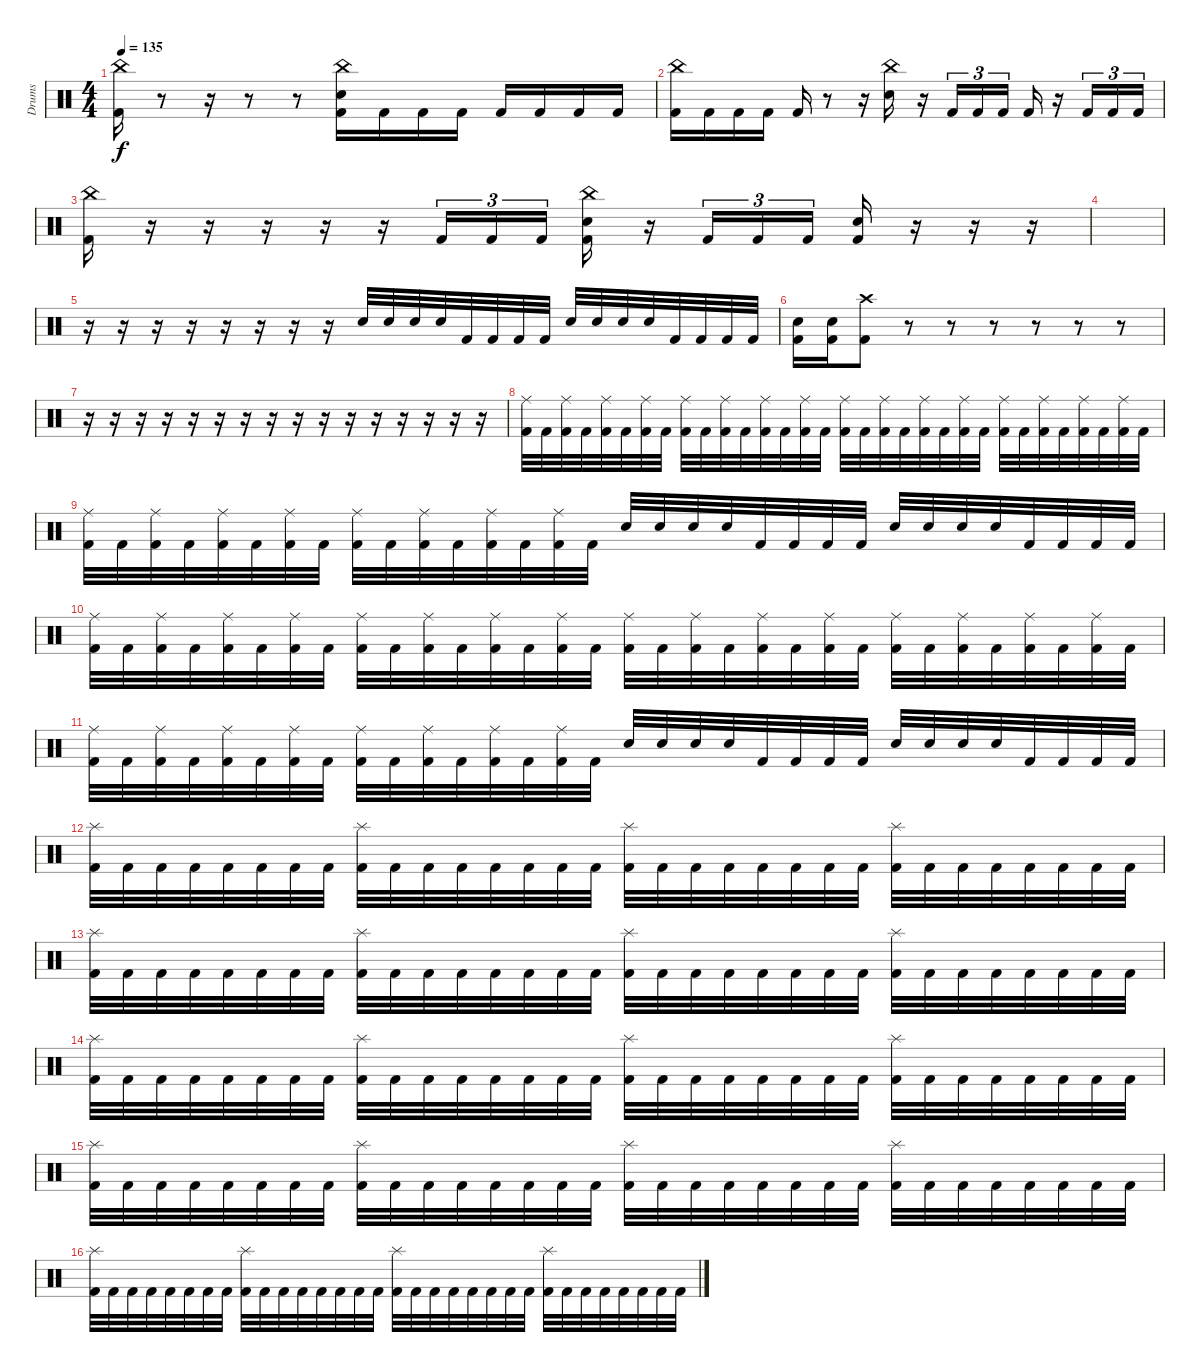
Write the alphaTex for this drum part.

\track ("Drums" "Drums") {instrument percussion}
\staff {score}
\articulation defaults
\ts (4 4)
\tempo 135
\clef neutral
\ks c
("China (hit)" "Kick (hit) 2").16{dy f} r.8 r.16 r.8 r.8 ("China (hit)" "Electric Snare (hit)" "Kick (hit) 2").16 "Kick (hit) 2".16 "Kick (hit) 2".16 "Kick (hit) 2".16 "Kick (hit) 2".16 "Kick (hit) 2".16 "Kick (hit) 2".16 "Kick (hit) 2".16 |
("China (hit)" "Kick (hit) 2").16 "Kick (hit) 2".16 "Kick (hit) 2".16 "Kick (hit) 2".16 "Kick (hit) 2".16 r.8 r.16 ("China (hit)" "Electric Snare (hit)").16 r.16 "Kick (hit) 2".16{tu (3 2)} "Kick (hit) 2".16{tu (3 2)} "Kick (hit) 2".16{tu (3 2)} "Kick (hit) 2".16 r.16 "Kick (hit) 2".16{tu (3 2)} "Kick (hit) 2".16{tu (3 2)} "Kick (hit) 2".16{tu (3 2)} |
("China (hit)" "Kick (hit) 2").16 r.16 r.16 r.16 r.16 r.16 "Kick (hit) 2".16{tu (3 2)} "Kick (hit) 2".16{tu (3 2)} "Kick (hit) 2".16{tu (3 2)} ("China (hit)" "Electric Snare (hit)" "Kick (hit) 2").16 r.16 "Kick (hit) 2".16{tu (3 2)} "Kick (hit) 2".16{tu (3 2)} "Kick (hit) 2".16{tu (3 2)} ("Electric Snare (hit)" "Kick (hit) 2").16 r.16 r.16 r.16 |
|
r.16 r.16 r.16 r.16 r.16 r.16 r.16 r.16 "Electric Snare (hit)".32 "Electric Snare (hit)".32 "Electric Snare (hit)".32 "Electric Snare (hit)".32 "Kick (hit) 2".32 "Kick (hit) 2".32 "Kick (hit) 2".32 "Kick (hit) 2".32 "Electric Snare (hit)".32 "Electric Snare (hit)".32 "Electric Snare (hit)".32 "Electric Snare (hit)".32 "Kick (hit) 2".32 "Kick (hit) 2".32 "Kick (hit) 2".32 "Kick (hit) 2".32 |
("Electric Snare (hit)" "Kick (hit) 2").16 ("Electric Snare (hit)" "Kick (hit) 2").16 ("Crash high (hit)" "Kick (hit) 2").8 r.8 r.8 r.8 r.8 r.8 r.8 |
r.16 r.16 r.16 r.16 r.16 r.16 r.16 r.16 r.16 r.16 r.16 r.16 r.16 r.16 r.16 r.16 |
("Ride (middle)" "Kick (hit) 2").32 "Kick (hit) 2".32 ("Ride (middle)" "Kick (hit) 2").32 "Kick (hit) 2".32 ("Ride (middle)" "Kick (hit) 2").32 "Kick (hit) 2".32 ("Ride (middle)" "Kick (hit) 2").32 "Kick (hit) 2".32 ("Ride (middle)" "Kick (hit) 2").32 "Kick (hit) 2".32 ("Ride (middle)" "Kick (hit) 2").32 "Kick (hit) 2".32 ("Ride (middle)" "Kick (hit) 2").32 "Kick (hit) 2".32 ("Ride (middle)" "Kick (hit) 2").32 "Kick (hit) 2".32 ("Ride (middle)" "Kick (hit) 2").32 "Kick (hit) 2".32 ("Ride (middle)" "Kick (hit) 2").32 "Kick (hit) 2".32 ("Ride (middle)" "Kick (hit) 2").32 "Kick (hit) 2".32 ("Ride (middle)" "Kick (hit) 2").32 "Kick (hit) 2".32 ("Ride (middle)" "Kick (hit) 2").32 "Kick (hit) 2".32 ("Ride (middle)" "Kick (hit) 2").32 "Kick (hit) 2".32 ("Ride (middle)" "Kick (hit) 2").32 "Kick (hit) 2".32 ("Ride (middle)" "Kick (hit) 2").32 "Kick (hit) 2".32 |
("Ride (middle)" "Kick (hit) 2").32 "Kick (hit) 2".32 ("Ride (middle)" "Kick (hit) 2").32 "Kick (hit) 2".32 ("Ride (middle)" "Kick (hit) 2").32 "Kick (hit) 2".32 ("Ride (middle)" "Kick (hit) 2").32 "Kick (hit) 2".32 ("Ride (middle)" "Kick (hit) 2").32 "Kick (hit) 2".32 ("Ride (middle)" "Kick (hit) 2").32 "Kick (hit) 2".32 ("Ride (middle)" "Kick (hit) 2").32 "Kick (hit) 2".32 ("Ride (middle)" "Kick (hit) 2").32 "Kick (hit) 2".32 "Electric Snare (hit)".32 "Electric Snare (hit)".32 "Electric Snare (hit)".32 "Electric Snare (hit)".32 "Kick (hit) 2".32 "Kick (hit) 2".32 "Kick (hit) 2".32 "Kick (hit) 2".32 "Electric Snare (hit)".32 "Electric Snare (hit)".32 "Electric Snare (hit)".32 "Electric Snare (hit)".32 "Kick (hit) 2".32 "Kick (hit) 2".32 "Kick (hit) 2".32 "Kick (hit) 2".32 |
("Ride (middle)" "Kick (hit) 2").32 "Kick (hit) 2".32 ("Ride (middle)" "Kick (hit) 2").32 "Kick (hit) 2".32 ("Ride (middle)" "Kick (hit) 2").32 "Kick (hit) 2".32 ("Ride (middle)" "Kick (hit) 2").32 "Kick (hit) 2".32 ("Ride (middle)" "Kick (hit) 2").32 "Kick (hit) 2".32 ("Ride (middle)" "Kick (hit) 2").32 "Kick (hit) 2".32 ("Ride (middle)" "Kick (hit) 2").32 "Kick (hit) 2".32 ("Ride (middle)" "Kick (hit) 2").32 "Kick (hit) 2".32 ("Ride (middle)" "Kick (hit) 2").32 "Kick (hit) 2".32 ("Ride (middle)" "Kick (hit) 2").32 "Kick (hit) 2".32 ("Ride (middle)" "Kick (hit) 2").32 "Kick (hit) 2".32 ("Ride (middle)" "Kick (hit) 2").32 "Kick (hit) 2".32 ("Ride (middle)" "Kick (hit) 2").32 "Kick (hit) 2".32 ("Ride (middle)" "Kick (hit) 2").32 "Kick (hit) 2".32 ("Ride (middle)" "Kick (hit) 2").32 "Kick (hit) 2".32 ("Ride (middle)" "Kick (hit) 2").32 "Kick (hit) 2".32 |
("Ride (middle)" "Kick (hit) 2").32 "Kick (hit) 2".32 ("Ride (middle)" "Kick (hit) 2").32 "Kick (hit) 2".32 ("Ride (middle)" "Kick (hit) 2").32 "Kick (hit) 2".32 ("Ride (middle)" "Kick (hit) 2").32 "Kick (hit) 2".32 ("Ride (middle)" "Kick (hit) 2").32 "Kick (hit) 2".32 ("Ride (middle)" "Kick (hit) 2").32 "Kick (hit) 2".32 ("Ride (middle)" "Kick (hit) 2").32 "Kick (hit) 2".32 ("Ride (middle)" "Kick (hit) 2").32 "Kick (hit) 2".32 "Electric Snare (hit)".32 "Electric Snare (hit)".32 "Electric Snare (hit)".32 "Electric Snare (hit)".32 "Kick (hit) 2".32 "Kick (hit) 2".32 "Kick (hit) 2".32 "Kick (hit) 2".32 "Electric Snare (hit)".32 "Electric Snare (hit)".32 "Electric Snare (hit)".32 "Electric Snare (hit)".32 "Kick (hit) 2".32 "Kick (hit) 2".32 "Kick (hit) 2".32 "Kick (hit) 2".32 |
("Splash (hit)" "Kick (hit) 2").32 "Kick (hit) 2".32 "Kick (hit) 2".32 "Kick (hit) 2".32 "Kick (hit) 2".32 "Kick (hit) 2".32 "Kick (hit) 2".32 "Kick (hit) 2".32 ("Splash (hit)" "Kick (hit) 2").32 "Kick (hit) 2".32 "Kick (hit) 2".32 "Kick (hit) 2".32 "Kick (hit) 2".32 "Kick (hit) 2".32 "Kick (hit) 2".32 "Kick (hit) 2".32 ("Splash (hit)" "Kick (hit) 2").32 "Kick (hit) 2".32 "Kick (hit) 2".32 "Kick (hit) 2".32 "Kick (hit) 2".32 "Kick (hit) 2".32 "Kick (hit) 2".32 "Kick (hit) 2".32 ("Splash (hit)" "Kick (hit) 2").32 "Kick (hit) 2".32 "Kick (hit) 2".32 "Kick (hit) 2".32 "Kick (hit) 2".32 "Kick (hit) 2".32 "Kick (hit) 2".32 "Kick (hit) 2".32 |
("Splash (hit)" "Kick (hit) 2").32 "Kick (hit) 2".32 "Kick (hit) 2".32 "Kick (hit) 2".32 "Kick (hit) 2".32 "Kick (hit) 2".32 "Kick (hit) 2".32 "Kick (hit) 2".32 ("Splash (hit)" "Kick (hit) 2").32 "Kick (hit) 2".32 "Kick (hit) 2".32 "Kick (hit) 2".32 "Kick (hit) 2".32 "Kick (hit) 2".32 "Kick (hit) 2".32 "Kick (hit) 2".32 ("Splash (hit)" "Kick (hit) 2").32 "Kick (hit) 2".32 "Kick (hit) 2".32 "Kick (hit) 2".32 "Kick (hit) 2".32 "Kick (hit) 2".32 "Kick (hit) 2".32 "Kick (hit) 2".32 ("Splash (hit)" "Kick (hit) 2").32 "Kick (hit) 2".32 "Kick (hit) 2".32 "Kick (hit) 2".32 "Kick (hit) 2".32 "Kick (hit) 2".32 "Kick (hit) 2".32 "Kick (hit) 2".32 |
("Splash (hit)" "Kick (hit) 2").32 "Kick (hit) 2".32 "Kick (hit) 2".32 "Kick (hit) 2".32 "Kick (hit) 2".32 "Kick (hit) 2".32 "Kick (hit) 2".32 "Kick (hit) 2".32 ("Splash (hit)" "Kick (hit) 2").32 "Kick (hit) 2".32 "Kick (hit) 2".32 "Kick (hit) 2".32 "Kick (hit) 2".32 "Kick (hit) 2".32 "Kick (hit) 2".32 "Kick (hit) 2".32 ("Splash (hit)" "Kick (hit) 2").32 "Kick (hit) 2".32 "Kick (hit) 2".32 "Kick (hit) 2".32 "Kick (hit) 2".32 "Kick (hit) 2".32 "Kick (hit) 2".32 "Kick (hit) 2".32 ("Splash (hit)" "Kick (hit) 2").32 "Kick (hit) 2".32 "Kick (hit) 2".32 "Kick (hit) 2".32 "Kick (hit) 2".32 "Kick (hit) 2".32 "Kick (hit) 2".32 "Kick (hit) 2".32 |
("Splash (hit)" "Kick (hit) 2").32 "Kick (hit) 2".32 "Kick (hit) 2".32 "Kick (hit) 2".32 "Kick (hit) 2".32 "Kick (hit) 2".32 "Kick (hit) 2".32 "Kick (hit) 2".32 ("Splash (hit)" "Kick (hit) 2").32 "Kick (hit) 2".32 "Kick (hit) 2".32 "Kick (hit) 2".32 "Kick (hit) 2".32 "Kick (hit) 2".32 "Kick (hit) 2".32 "Kick (hit) 2".32 ("Splash (hit)" "Kick (hit) 2").32 "Kick (hit) 2".32 "Kick (hit) 2".32 "Kick (hit) 2".32 "Kick (hit) 2".32 "Kick (hit) 2".32 "Kick (hit) 2".32 "Kick (hit) 2".32 ("Splash (hit)" "Kick (hit) 2").32 "Kick (hit) 2".32 "Kick (hit) 2".32 "Kick (hit) 2".32 "Kick (hit) 2".32 "Kick (hit) 2".32 "Kick (hit) 2".32 "Kick (hit) 2".32 |
("Splash (hit)" "Kick (hit) 2").32 "Kick (hit) 2".32 "Kick (hit) 2".32 "Kick (hit) 2".32 "Kick (hit) 2".32 "Kick (hit) 2".32 "Kick (hit) 2".32 "Kick (hit) 2".32 ("Splash (hit)" "Kick (hit) 2").32 "Kick (hit) 2".32 "Kick (hit) 2".32 "Kick (hit) 2".32 "Kick (hit) 2".32 "Kick (hit) 2".32 "Kick (hit) 2".32 "Kick (hit) 2".32 ("Splash (hit)" "Kick (hit) 2").32 "Kick (hit) 2".32 "Kick (hit) 2".32 "Kick (hit) 2".32 "Kick (hit) 2".32 "Kick (hit) 2".32 "Kick (hit) 2".32 "Kick (hit) 2".32 ("Splash (hit)" "Kick (hit) 2").32 "Kick (hit) 2".32 "Kick (hit) 2".32 "Kick (hit) 2".32 "Kick (hit) 2".32 "Kick (hit) 2".32 "Kick (hit) 2".32 "Kick (hit) 2".32
